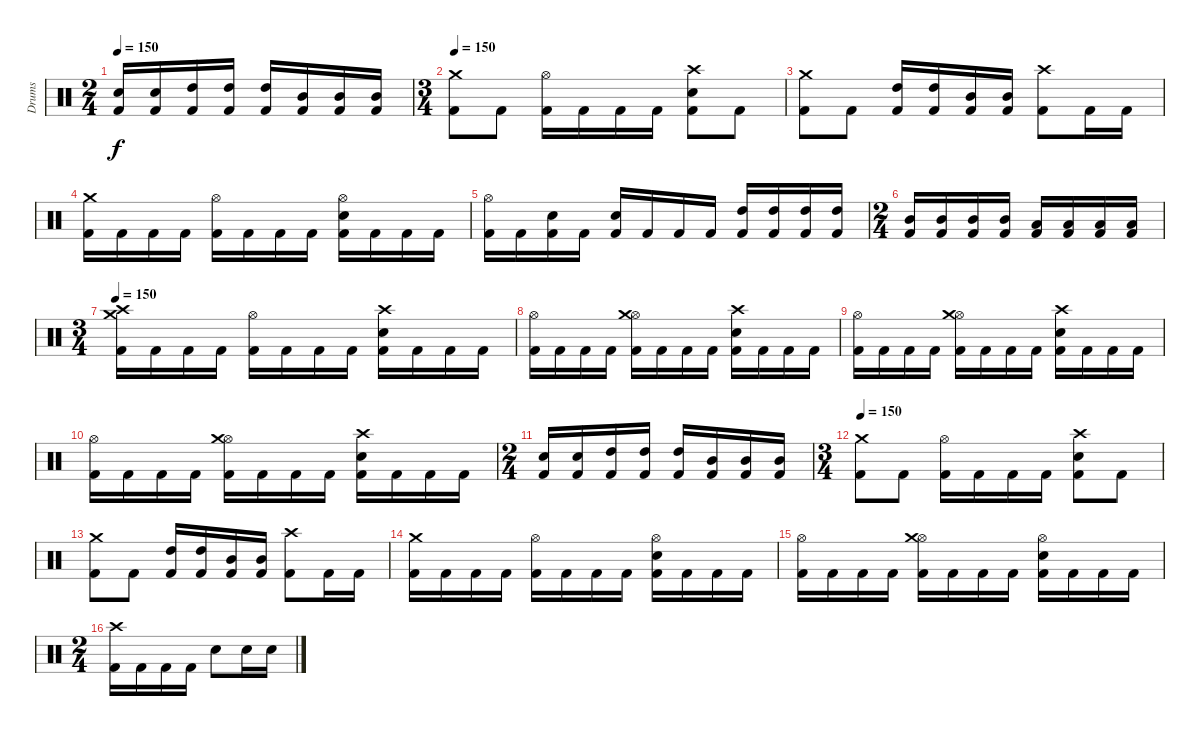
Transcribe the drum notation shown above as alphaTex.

\track ("Drums" "Drums") {instrument percussion}
\staff {score}
\articulation defaults
\ts (2 4)
\tempo 150
\clef neutral
\ks c
("Kick (hit) 2" "Electric Snare (hit)").16{dy f} ("Kick (hit) 2" "Electric Snare (hit)").16 ("Kick (hit) 2" "High Tom (hit)").16 ("Kick (hit) 2" "High Tom (hit)").16 ("Kick (hit) 2" "High Tom (hit)").16 ("Kick (hit) 2" "Mid Tom (hit)").16 ("Kick (hit) 2" "Mid Tom (hit)").16 ("Kick (hit) 2" "Mid Tom (hit)").16 |
\ts (3 4)
\tempo 150
("Kick (hit) 2" "Crash medium (hit)").8 "Kick (hit) 2".8 ("Kick (hit) 2" "Hi-Hat (open)").16 "Kick (hit) 2".16 "Kick (hit) 2".16 "Kick (hit) 2".16 ("Kick (hit) 2" "Electric Snare (hit)" "Crash high (hit)").8 "Kick (hit) 2".8 |
("Kick (hit) 2" "Crash medium (hit)").8 "Kick (hit) 2".8 ("Kick (hit) 2" "High Tom (hit)").16 ("Kick (hit) 2" "High Tom (hit)").16 ("Kick (hit) 2" "Mid Tom (hit)").16 ("Kick (hit) 2" "Mid Tom (hit)").16 ("Kick (hit) 2" "Crash high (hit)").8 "Kick (hit) 2".16 "Kick (hit) 2".16 |
("Kick (hit) 2" "Crash medium (hit)").16 "Kick (hit) 2".16 "Kick (hit) 2".16 "Kick (hit) 2".16 ("Kick (hit) 2" "Hi-Hat (open)").16 "Kick (hit) 2".16 "Kick (hit) 2".16 "Kick (hit) 2".16 ("Kick (hit) 2" "Electric Snare (hit)" "Hi-Hat (open)").16 "Kick (hit) 2".16 "Kick (hit) 2".16 "Kick (hit) 2".16 |
("Kick (hit) 2" "Hi-Hat (open)").16 "Kick (hit) 2".16 ("Kick (hit) 2" "Electric Snare (hit)").16 "Kick (hit) 2".16 ("Kick (hit) 2" "Electric Snare (hit)").16 "Kick (hit) 2".16 "Kick (hit) 2".16 "Kick (hit) 2".16 ("Kick (hit) 2" "High Tom (hit)").16 ("Kick (hit) 2" "High Tom (hit)").16 ("Kick (hit) 2" "High Tom (hit)").16 ("Kick (hit) 2" "High Tom (hit)").16 |
\ts (2 4)
("Kick (hit) 2" "Mid Tom (hit)").16 ("Kick (hit) 2" "Mid Tom (hit)").16 ("Kick (hit) 2" "Mid Tom (hit)").16 ("Kick (hit) 2" "Mid Tom (hit)").16 ("Kick (hit) 2" "Low Tom (hit)").16 ("Kick (hit) 2" "Low Tom (hit)").16 ("Kick (hit) 2" "Low Tom (hit)").16 ("Kick (hit) 2" "Low Tom (hit)").16 |
\ts (3 4)
\tempo 150
("Kick (hit) 2" "Crash high (hit)" "Crash medium (hit)").16 "Kick (hit) 2".16 "Kick (hit) 2".16 "Kick (hit) 2".16 ("Kick (hit) 2" "Hi-Hat (open)").16 "Kick (hit) 2".16 "Kick (hit) 2".16 "Kick (hit) 2".16 ("Kick (hit) 2" "Electric Snare (hit)" "Crash high (hit)").16 "Kick (hit) 2".16 "Kick (hit) 2".16 "Kick (hit) 2".16 |
("Kick (hit) 2" "Hi-Hat (open)").16 "Kick (hit) 2".16 "Kick (hit) 2".16 "Kick (hit) 2".16 ("Kick (hit) 2" "Hi-Hat (open)" "Crash medium (hit)").16 "Kick (hit) 2".16 "Kick (hit) 2".16 "Kick (hit) 2".16 ("Kick (hit) 2" "Electric Snare (hit)" "Crash high (hit)").16 "Kick (hit) 2".16 "Kick (hit) 2".16 "Kick (hit) 2".16 |
("Kick (hit) 2" "Hi-Hat (open)").16 "Kick (hit) 2".16 "Kick (hit) 2".16 "Kick (hit) 2".16 ("Kick (hit) 2" "Hi-Hat (open)" "Crash medium (hit)").16 "Kick (hit) 2".16 "Kick (hit) 2".16 "Kick (hit) 2".16 ("Kick (hit) 2" "Electric Snare (hit)" "Crash high (hit)").16 "Kick (hit) 2".16 "Kick (hit) 2".16 "Kick (hit) 2".16 |
("Kick (hit) 2" "Hi-Hat (open)").16 "Kick (hit) 2".16 "Kick (hit) 2".16 "Kick (hit) 2".16 ("Kick (hit) 2" "Hi-Hat (open)" "Crash medium (hit)").16 "Kick (hit) 2".16 "Kick (hit) 2".16 "Kick (hit) 2".16 ("Kick (hit) 2" "Electric Snare (hit)" "Crash high (hit)").16 "Kick (hit) 2".16 "Kick (hit) 2".16 "Kick (hit) 2".16 |
\ts (2 4)
("Kick (hit) 2" "Electric Snare (hit)").16 ("Kick (hit) 2" "Electric Snare (hit)").16 ("Kick (hit) 2" "High Tom (hit)").16 ("Kick (hit) 2" "High Tom (hit)").16 ("Kick (hit) 2" "High Tom (hit)").16 ("Kick (hit) 2" "Mid Tom (hit)").16 ("Kick (hit) 2" "Mid Tom (hit)").16 ("Kick (hit) 2" "Mid Tom (hit)").16 |
\ts (3 4)
\tempo 150
("Kick (hit) 2" "Crash medium (hit)").8 "Kick (hit) 2".8 ("Kick (hit) 2" "Hi-Hat (open)").16 "Kick (hit) 2".16 "Kick (hit) 2".16 "Kick (hit) 2".16 ("Kick (hit) 2" "Electric Snare (hit)" "Crash high (hit)").8 "Kick (hit) 2".8 |
("Kick (hit) 2" "Crash medium (hit)").8 "Kick (hit) 2".8 ("Kick (hit) 2" "High Tom (hit)").16 ("Kick (hit) 2" "High Tom (hit)").16 ("Kick (hit) 2" "Mid Tom (hit)").16 ("Kick (hit) 2" "Mid Tom (hit)").16 ("Kick (hit) 2" "Crash high (hit)").8 "Kick (hit) 2".16 "Kick (hit) 2".16 |
("Kick (hit) 2" "Crash medium (hit)").16 "Kick (hit) 2".16 "Kick (hit) 2".16 "Kick (hit) 2".16 ("Kick (hit) 2" "Hi-Hat (open)").16 "Kick (hit) 2".16 "Kick (hit) 2".16 "Kick (hit) 2".16 ("Kick (hit) 2" "Electric Snare (hit)" "Hi-Hat (open)").16 "Kick (hit) 2".16 "Kick (hit) 2".16 "Kick (hit) 2".16 |
("Kick (hit) 2" "Hi-Hat (open)").16 "Kick (hit) 2".16 "Kick (hit) 2".16 "Kick (hit) 2".16 ("Kick (hit) 2" "Hi-Hat (open)" "Crash medium (hit)").16 "Kick (hit) 2".16 "Kick (hit) 2".16 "Kick (hit) 2".16 ("Kick (hit) 2" "Electric Snare (hit)" "Hi-Hat (open)").16 "Kick (hit) 2".16 "Kick (hit) 2".16 "Kick (hit) 2".16 |
\ts (2 4)
("Kick (hit) 2" "Crash high (hit)").16 "Kick (hit) 2".16 "Kick (hit) 2".16 "Kick (hit) 2".16 "Electric Snare (hit)".8 "Electric Snare (hit)".16 "Electric Snare (hit)".16
